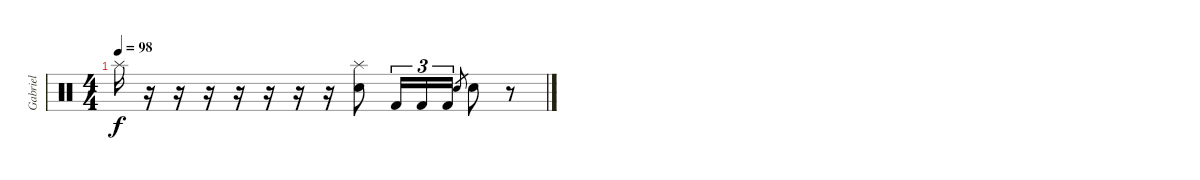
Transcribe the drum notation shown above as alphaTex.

\track ("Gabriel" "Gabriel") {instrument percussion}
\staff {score}
\articulation defaults
\ts (4 4)
\tempo 98
\clef neutral
\ks c "Splash (hit)".16{dy f}
r.16 r.16 r.16 r.16 r.16 r.16 r.16 ("Splash (hit)" "Electric Snare (hit)").8 "Kick (hit) 2".16{tu (3 2)} "Kick (hit) 2".16{tu (3 2)} "Kick (hit) 2".16{tu (3 2)} "Electric Snare (hit)".8{gr} "Electric Snare (hit)".8 r.8
